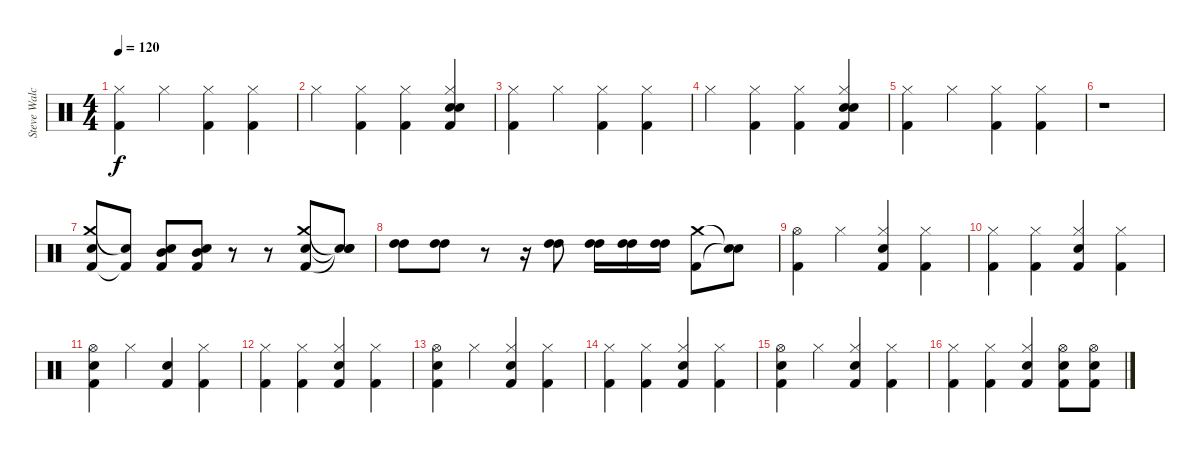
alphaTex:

\track ("Steve Walchoz" "Steve Walc") {instrument percussion}
\staff {score}
\articulation defaults
\ts (4 4)
\tempo 120
\clef neutral
\ks c
("Kick (hit) 2" "Hi-Hat (closed)").4{dy f} "Hi-Hat (closed)".4 ("Kick (hit) 2" "Hi-Hat (closed)").4 ("Kick (hit) 2" "Hi-Hat (closed)").4 |
"Hi-Hat (closed)".4 ("Kick (hit) 2" "Hi-Hat (closed)").4 ("Kick (hit) 2" "Hi-Hat (closed)").4 ("Kick (hit) 2" "Snare (hit) 2" "Hi-Hat (closed)" "Snare (hit) 2").4 |
("Kick (hit) 2" "Hi-Hat (closed)").4 "Hi-Hat (closed)".4 ("Kick (hit) 2" "Hi-Hat (closed)").4 ("Kick (hit) 2" "Hi-Hat (closed)").4 |
"Hi-Hat (closed)".4 ("Kick (hit) 2" "Hi-Hat (closed)").4 ("Kick (hit) 2" "Hi-Hat (closed)").4 ("Kick (hit) 2" "Snare (hit) 2" "Hi-Hat (closed)" "Snare (hit) 2").4 |
("Kick (hit) 2" "Hi-Hat (closed)").4 "Hi-Hat (closed)".4 ("Kick (hit) 2" "Hi-Hat (closed)").4 ("Kick (hit) 2" "Hi-Hat (closed)").4 |
r.1 |
("Kick (hit) 2" "Crash medium (hit)" "Electric Snare (hit)").8 ("Kick (hit) 2"{t} "Snare (hit)"{t}).8 ("Mid Tom (hit)" "Kick (hit) 2" "Electric Snare (hit)").8 ("Mid Tom (hit)" "Kick (hit) 2" "Electric Snare (hit)").8 r.8 r.8 ("Electric Snare (hit)" "Crash medium (hit)" "Kick (hit) 2").8 ("Snare (hit)"{t} "Snare (hit)"{t} "Snare (hit)"{t}).8 |
("High Tom (hit)" "High Tom (hit)").8 ("High Tom (hit)" "High Tom (hit)").8 r.8 r.16 ("High Tom (hit)" "High Tom (hit)").8 ("High Tom (hit)" "High Tom (hit)").16 ("High Tom (hit)" "High Tom (hit)").16 ("High Tom (hit)" "High Tom (hit)").16 ("Crash medium (hit)" "Kick (hit) 2").8 ("Snare (hit)"{t} "Snare (hit)"{t}).8 |
("Kick (hit) 2" "Hi-Hat (open)").4 "Hi-Hat (closed)".4 ("Kick (hit) 2" "Electric Snare (hit)" "Hi-Hat (closed)").4 ("Kick (hit) 2" "Hi-Hat (closed)").4 |
("Kick (hit) 2" "Hi-Hat (closed)").4 ("Kick (hit) 2" "Hi-Hat (closed)").4 ("Kick (hit) 2" "Electric Snare (hit)" "Hi-Hat (closed)").4 ("Kick (hit) 2" "Hi-Hat (closed)").4 |
("Kick (hit) 2" "Snare (hit) 2" "Hi-Hat (open)").4 "Hi-Hat (closed)".4 ("Kick (hit) 2" "Electric Snare (hit)").4 ("Kick (hit) 2" "Hi-Hat (closed)").4 |
("Kick (hit) 2" "Hi-Hat (closed)").4 ("Kick (hit) 2" "Hi-Hat (closed)").4 ("Kick (hit) 2" "Electric Snare (hit)" "Hi-Hat (closed)").4 ("Kick (hit) 2" "Hi-Hat (closed)").4 |
("Kick (hit) 2" "Snare (hit) 2" "Hi-Hat (open)").4 "Hi-Hat (closed)".4 ("Kick (hit) 2" "Electric Snare (hit)" "Hi-Hat (closed)").4 ("Kick (hit) 2" "Hi-Hat (closed)").4 |
("Kick (hit) 2" "Hi-Hat (closed)").4 ("Kick (hit) 2" "Hi-Hat (closed)").4 ("Kick (hit) 2" "Electric Snare (hit)" "Hi-Hat (closed)").4 ("Kick (hit) 2" "Hi-Hat (closed)").4 |
("Kick (hit) 2" "Snare (hit) 2" "Hi-Hat (open)").4 "Hi-Hat (closed)".4 ("Kick (hit) 2" "Electric Snare (hit)" "Hi-Hat (closed)").4 ("Kick (hit) 2" "Hi-Hat (closed)").4 |
("Kick (hit) 2" "Hi-Hat (closed)").4 ("Kick (hit) 2" "Hi-Hat (closed)").4 ("Kick (hit) 2" "Electric Snare (hit)" "Hi-Hat (closed)").4 ("Kick (hit) 2" "Snare (hit) 2" "Hi-Hat (open)").8 ("Kick (hit) 2" "Snare (hit) 2" "Hi-Hat (open)").8
